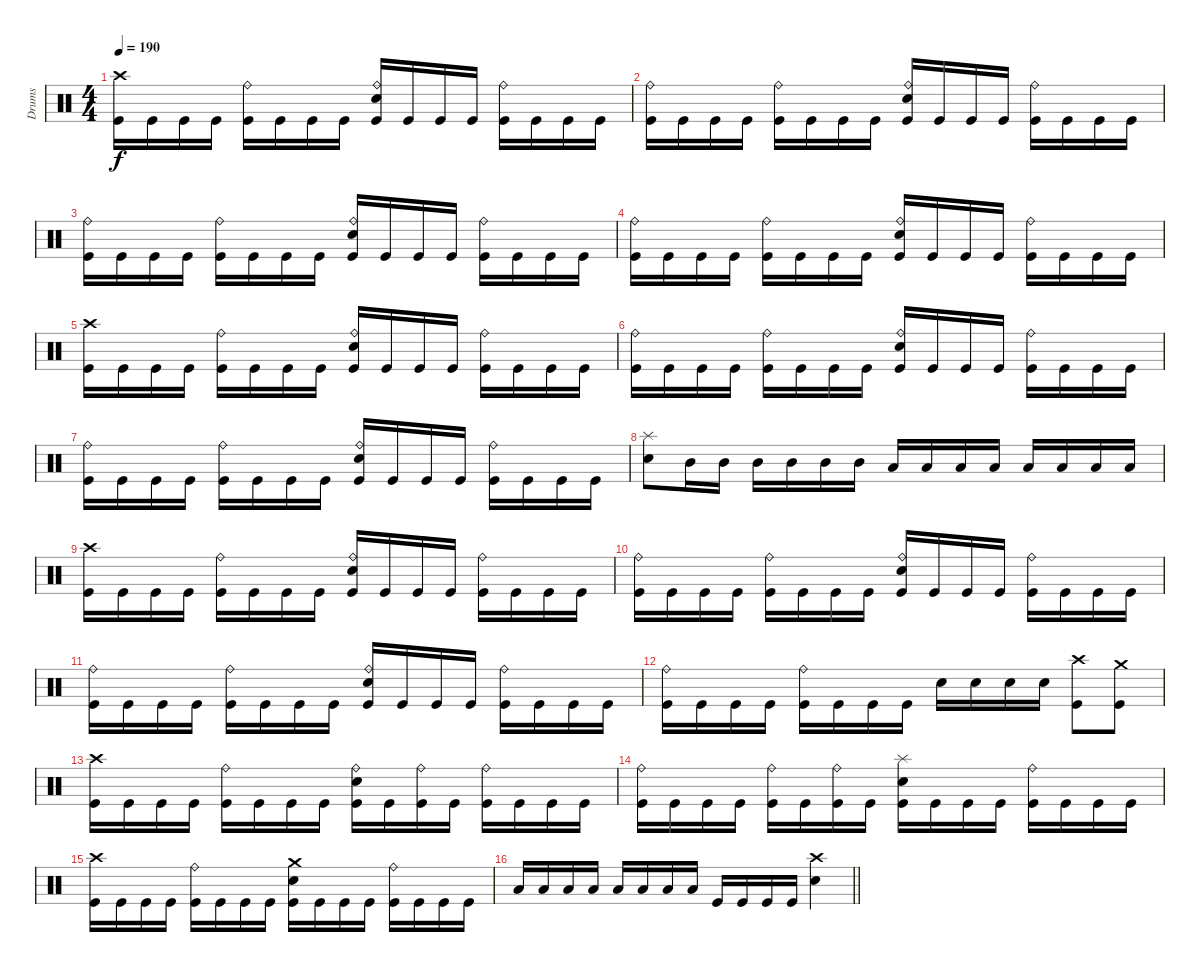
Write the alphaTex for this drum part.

\track ("Drums" "Drums") {instrument percussion}
\staff {score}
\articulation defaults
\ts (4 4)
\tempo 190
\clef neutral
\ks c
("Crash high (hit)" "Kick (hit)").16{dy f} "Kick (hit)".16 "Kick (hit)".16 "Kick (hit)".16 ("Ride (bell)" "Kick (hit)").16 "Kick (hit)".16 "Kick (hit)".16 "Kick (hit)".16 ("Ride (bell)" "Electric Snare (hit)" "Kick (hit)").16 "Kick (hit)".16 "Kick (hit)".16 "Kick (hit)".16 ("Ride (bell)" "Kick (hit)").16 "Kick (hit)".16 "Kick (hit)".16 "Kick (hit)".16 |
("Ride (bell)" "Kick (hit)").16 "Kick (hit)".16 "Kick (hit)".16 "Kick (hit)".16 ("Ride (bell)" "Kick (hit)").16 "Kick (hit)".16 "Kick (hit)".16 "Kick (hit)".16 ("Ride (bell)" "Electric Snare (hit)" "Kick (hit)").16 "Kick (hit)".16 "Kick (hit)".16 "Kick (hit)".16 ("Ride (bell)" "Kick (hit)").16 "Kick (hit)".16 "Kick (hit)".16 "Kick (hit)".16 |
("Ride (bell)" "Kick (hit)").16 "Kick (hit)".16 "Kick (hit)".16 "Kick (hit)".16 ("Ride (bell)" "Kick (hit)").16 "Kick (hit)".16 "Kick (hit)".16 "Kick (hit)".16 ("Ride (bell)" "Electric Snare (hit)" "Kick (hit)").16 "Kick (hit)".16 "Kick (hit)".16 "Kick (hit)".16 ("Ride (bell)" "Kick (hit)").16 "Kick (hit)".16 "Kick (hit)".16 "Kick (hit)".16 |
("Ride (bell)" "Kick (hit)").16 "Kick (hit)".16 "Kick (hit)".16 "Kick (hit)".16 ("Ride (bell)" "Kick (hit)").16 "Kick (hit)".16 "Kick (hit)".16 "Kick (hit)".16 ("Ride (bell)" "Electric Snare (hit)" "Kick (hit)").16 "Kick (hit)".16 "Kick (hit)".16 "Kick (hit)".16 ("Ride (bell)" "Kick (hit)").16 "Kick (hit)".16 "Kick (hit)".16 "Kick (hit)".16 |
("Crash high (hit)" "Kick (hit)").16 "Kick (hit)".16 "Kick (hit)".16 "Kick (hit)".16 ("Ride (bell)" "Kick (hit)").16 "Kick (hit)".16 "Kick (hit)".16 "Kick (hit)".16 ("Ride (bell)" "Electric Snare (hit)" "Kick (hit)").16 "Kick (hit)".16 "Kick (hit)".16 "Kick (hit)".16 ("Ride (bell)" "Kick (hit)").16 "Kick (hit)".16 "Kick (hit)".16 "Kick (hit)".16 |
("Ride (bell)" "Kick (hit)").16 "Kick (hit)".16 "Kick (hit)".16 "Kick (hit)".16 ("Ride (bell)" "Kick (hit)").16 "Kick (hit)".16 "Kick (hit)".16 "Kick (hit)".16 ("Ride (bell)" "Electric Snare (hit)" "Kick (hit)").16 "Kick (hit)".16 "Kick (hit)".16 "Kick (hit)".16 ("Ride (bell)" "Kick (hit)").16 "Kick (hit)".16 "Kick (hit)".16 "Kick (hit)".16 |
("Ride (bell)" "Kick (hit)").16 "Kick (hit)".16 "Kick (hit)".16 "Kick (hit)".16 ("Ride (bell)" "Kick (hit)").16 "Kick (hit)".16 "Kick (hit)".16 "Kick (hit)".16 ("Ride (bell)" "Electric Snare (hit)" "Kick (hit)").16 "Kick (hit)".16 "Kick (hit)".16 "Kick (hit)".16 ("Ride (bell)" "Kick (hit)").16 "Kick (hit)".16 "Kick (hit)".16 "Kick (hit)".16 |
("Splash (hit)" "Electric Snare (hit)").8 "Mid Tom (hit)".16 "Mid Tom (hit)".16 "Mid Tom (hit)".16 "Mid Tom (hit)".16 "Mid Tom (hit)".16 "Mid Tom (hit)".16 "Low Tom (hit)".16 "Low Tom (hit)".16 "Low Tom (hit)".16 "Low Tom (hit)".16 "Low Floor Tom (hit)".16 "Low Floor Tom (hit)".16 "Low Floor Tom (hit)".16 "Low Floor Tom (hit)".16 |
("Crash high (hit)" "Kick (hit)").16 "Kick (hit)".16 "Kick (hit)".16 "Kick (hit)".16 ("Ride (bell)" "Kick (hit)").16 "Kick (hit)".16 "Kick (hit)".16 "Kick (hit)".16 ("Ride (bell)" "Electric Snare (hit)" "Kick (hit)").16 "Kick (hit)".16 "Kick (hit)".16 "Kick (hit)".16 ("Ride (bell)" "Kick (hit)").16 "Kick (hit)".16 "Kick (hit)".16 "Kick (hit)".16 |
("Ride (bell)" "Kick (hit)").16 "Kick (hit)".16 "Kick (hit)".16 "Kick (hit)".16 ("Ride (bell)" "Kick (hit)").16 "Kick (hit)".16 "Kick (hit)".16 "Kick (hit)".16 ("Ride (bell)" "Electric Snare (hit)" "Kick (hit)").16 "Kick (hit)".16 "Kick (hit)".16 "Kick (hit)".16 ("Ride (bell)" "Kick (hit)").16 "Kick (hit)".16 "Kick (hit)".16 "Kick (hit)".16 |
("Ride (bell)" "Kick (hit)").16 "Kick (hit)".16 "Kick (hit)".16 "Kick (hit)".16 ("Ride (bell)" "Kick (hit)").16 "Kick (hit)".16 "Kick (hit)".16 "Kick (hit)".16 ("Ride (bell)" "Electric Snare (hit)" "Kick (hit)").16 "Kick (hit)".16 "Kick (hit)".16 "Kick (hit)".16 ("Ride (bell)" "Kick (hit)").16 "Kick (hit)".16 "Kick (hit)".16 "Kick (hit)".16 |
("Ride (bell)" "Kick (hit)").16 "Kick (hit)".16 "Kick (hit)".16 "Kick (hit)".16 ("Ride (bell)" "Kick (hit)").16 "Kick (hit)".16 "Kick (hit)".16 "Kick (hit)".16 "Electric Snare (hit)".16 "Electric Snare (hit)".16 "Electric Snare (hit)".16 "Electric Snare (hit)".16 ("Crash high (hit)" "Kick (hit)").8 ("Crash medium (hit)" "Kick (hit)").8 |
("Crash high (hit)" "Kick (hit)").16 "Kick (hit)".16 "Kick (hit)".16 "Kick (hit)".16 ("Ride (bell)" "Kick (hit)").16 "Kick (hit)".16 "Kick (hit)".16 "Kick (hit)".16 ("Ride (bell)" "Electric Snare (hit)" "Kick (hit)").16 "Kick (hit)".16 ("Ride (bell)" "Kick (hit)").16 "Kick (hit)".16 ("Ride (bell)" "Kick (hit)").16 "Kick (hit)".16 "Kick (hit)".16 "Kick (hit)".16 |
("Ride (bell)" "Kick (hit)").16 "Kick (hit)".16 "Kick (hit)".16 "Kick (hit)".16 ("Ride (bell)" "Kick (hit)").16 "Kick (hit)".16 ("Ride (bell)" "Kick (hit)").16 "Kick (hit)".16 ("Splash (hit)" "Electric Snare (hit)" "Kick (hit)").16 "Kick (hit)".16 "Kick (hit)".16 "Kick (hit)".16 ("Ride (bell)" "Kick (hit)").16 "Kick (hit)".16 "Kick (hit)".16 "Kick (hit)".16 |
("Crash high (hit)" "Kick (hit)").16 "Kick (hit)".16 "Kick (hit)".16 "Kick (hit)".16 ("Ride (bell)" "Kick (hit)").16 "Kick (hit)".16 "Kick (hit)".16 "Kick (hit)".16 ("Crash medium (hit)" "Electric Snare (hit)" "Kick (hit)").16 "Kick (hit)".16 "Kick (hit)".16 "Kick (hit)".16 ("Ride (bell)" "Kick (hit)").16 "Kick (hit)".16 "Kick (hit)".16 "Kick (hit)".16 |
\barLineRight lightlight "Low Tom (hit)".16 "Low Tom (hit)".16 "Low Tom (hit)".16 "Low Tom (hit)".16 "Low Floor Tom (hit)".16 "Low Floor Tom (hit)".16 "Low Floor Tom (hit)".16 "Low Floor Tom (hit)".16 "Kick (hit)".16 "Kick (hit)".16 "Kick (hit)".16 "Kick (hit)".16
("Crash high (hit)" "Electric Snare (hit)").4
